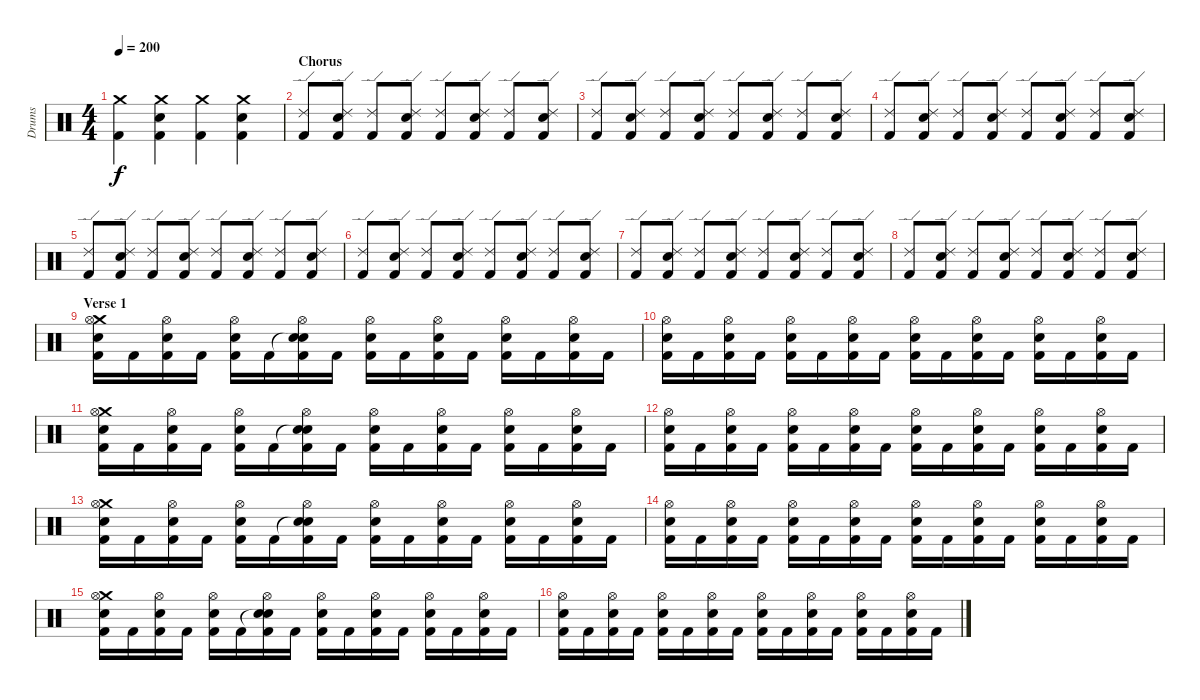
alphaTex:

\track ("Drums" "Drums") {instrument percussion}
\staff {score}
\articulation defaults
\ts (4 4)
\tempo 200
\clef neutral
\ks c
("Crash medium (hit)" "Kick (hit) 2").4{dy f} ("Crash medium (hit)" "Snare (hit) 2" "Kick (hit) 2").4 ("Crash medium (hit)" "Kick (hit) 2").4 ("Crash medium (hit)" "Snare (hit) 2" "Kick (hit) 2").4 |
\section ("" "Chorus")
("Ride (edge) 2" "Kick (hit) 2").8 ("Ride (edge) 2" "Snare (hit) 2" "Kick (hit) 2").8 ("Ride (edge) 2" "Kick (hit) 2").8 ("Ride (edge) 2" "Snare (hit) 2" "Kick (hit) 2").8 ("Ride (edge) 2" "Kick (hit) 2").8 ("Ride (edge) 2" "Snare (hit) 2" "Kick (hit) 2").8 ("Ride (edge) 2" "Kick (hit) 2").8 ("Ride (edge) 2" "Snare (hit) 2" "Kick (hit) 2").8 |
("Ride (edge) 2" "Kick (hit) 2").8 ("Ride (edge) 2" "Snare (hit) 2" "Kick (hit) 2").8 ("Ride (edge) 2" "Kick (hit) 2").8 ("Ride (edge) 2" "Snare (hit) 2" "Kick (hit) 2").8 ("Ride (edge) 2" "Kick (hit) 2").8 ("Ride (edge) 2" "Snare (hit) 2" "Kick (hit) 2").8 ("Ride (edge) 2" "Kick (hit) 2").8 ("Ride (edge) 2" "Snare (hit) 2" "Kick (hit) 2").8 |
("Ride (edge) 2" "Kick (hit) 2").8 ("Ride (edge) 2" "Snare (hit) 2" "Kick (hit) 2").8 ("Ride (edge) 2" "Kick (hit) 2").8 ("Ride (edge) 2" "Snare (hit) 2" "Kick (hit) 2").8 ("Ride (edge) 2" "Kick (hit) 2").8 ("Ride (edge) 2" "Snare (hit) 2" "Kick (hit) 2").8 ("Ride (edge) 2" "Kick (hit) 2").8 ("Ride (edge) 2" "Snare (hit) 2" "Kick (hit) 2").8 |
("Ride (edge) 2" "Kick (hit) 2").8 ("Ride (edge) 2" "Snare (hit) 2" "Kick (hit) 2").8 ("Ride (edge) 2" "Kick (hit) 2").8 ("Ride (edge) 2" "Snare (hit) 2" "Kick (hit) 2").8 ("Ride (edge) 2" "Kick (hit) 2").8 ("Ride (edge) 2" "Snare (hit) 2" "Kick (hit) 2").8 ("Ride (edge) 2" "Kick (hit) 2").8 ("Ride (edge) 2" "Snare (hit) 2" "Kick (hit) 2").8 |
("Ride (edge) 2" "Kick (hit) 2").8 ("Ride (edge) 2" "Snare (hit) 2" "Kick (hit) 2").8 ("Ride (edge) 2" "Kick (hit) 2").8 ("Ride (edge) 2" "Snare (hit) 2" "Kick (hit) 2").8 ("Ride (edge) 2" "Kick (hit) 2").8 ("Ride (edge) 2" "Snare (hit) 2" "Kick (hit) 2").8 ("Ride (edge) 2" "Kick (hit) 2").8 ("Ride (edge) 2" "Snare (hit) 2" "Kick (hit) 2").8 |
("Ride (edge) 2" "Kick (hit) 2").8 ("Ride (edge) 2" "Snare (hit) 2" "Kick (hit) 2").8 ("Ride (edge) 2" "Kick (hit) 2").8 ("Ride (edge) 2" "Snare (hit) 2" "Kick (hit) 2").8 ("Ride (edge) 2" "Kick (hit) 2").8 ("Ride (edge) 2" "Snare (hit) 2" "Kick (hit) 2").8 ("Ride (edge) 2" "Kick (hit) 2").8 ("Ride (edge) 2" "Snare (hit) 2" "Kick (hit) 2").8 |
("Ride (edge) 2" "Kick (hit) 2").8 ("Ride (edge) 2" "Snare (hit) 2" "Kick (hit) 2").8 ("Ride (edge) 2" "Kick (hit) 2").8 ("Ride (edge) 2" "Snare (hit) 2" "Kick (hit) 2").8 ("Ride (edge) 2" "Kick (hit) 2").8 ("Ride (edge) 2" "Snare (hit) 2" "Kick (hit) 2").8 ("Ride (edge) 2" "Kick (hit) 2").8 ("Ride (edge) 2" "Snare (hit) 2" "Kick (hit) 2").8 |
\section ("" "Verse 1")
("Crash medium (hit)" "Snare (hit) 2" "Hi-Hat (open)" "Kick (hit) 2").16 "Kick (hit) 2".16 ("Snare (hit) 2" "Hi-Hat (open)" "Kick (hit) 2").16 "Kick (hit) 2".16 ("Snare (hit) 2" "Hi-Hat (open)" "Kick (hit) 2").16 "Kick (hit) 2".16 ("Snare (hit)"{t} "Snare (hit) 2" "Hi-Hat (open)" "Kick (hit) 2").16 "Kick (hit) 2".16 ("Snare (hit) 2" "Hi-Hat (open)" "Kick (hit) 2").16 "Kick (hit) 2".16 ("Snare (hit) 2" "Hi-Hat (open)" "Kick (hit) 2").16 "Kick (hit) 2".16 ("Snare (hit) 2" "Hi-Hat (open)" "Kick (hit) 2").16 "Kick (hit) 2".16 ("Snare (hit) 2" "Hi-Hat (open)" "Kick (hit) 2").16 "Kick (hit) 2".16 |
("Snare (hit) 2" "Hi-Hat (open)" "Kick (hit) 2").16 "Kick (hit) 2".16 ("Snare (hit) 2" "Hi-Hat (open)" "Kick (hit) 2").16 "Kick (hit) 2".16 ("Snare (hit) 2" "Hi-Hat (open)" "Kick (hit) 2").16 "Kick (hit) 2".16 ("Snare (hit) 2" "Hi-Hat (open)" "Kick (hit) 2").16 "Kick (hit) 2".16 ("Snare (hit) 2" "Hi-Hat (open)" "Kick (hit) 2").16 "Kick (hit) 2".16 ("Snare (hit) 2" "Hi-Hat (open)" "Kick (hit) 2").16 "Kick (hit) 2".16 ("Snare (hit) 2" "Hi-Hat (open)" "Kick (hit) 2").16 "Kick (hit) 2".16 ("Snare (hit) 2" "Hi-Hat (open)" "Kick (hit) 2").16 "Kick (hit) 2".16 |
("Crash medium (hit)" "Snare (hit) 2" "Hi-Hat (open)" "Kick (hit) 2").16 "Kick (hit) 2".16 ("Snare (hit) 2" "Hi-Hat (open)" "Kick (hit) 2").16 "Kick (hit) 2".16 ("Snare (hit) 2" "Hi-Hat (open)" "Kick (hit) 2").16 "Kick (hit) 2".16 ("Snare (hit)"{t} "Snare (hit) 2" "Hi-Hat (open)" "Kick (hit) 2").16 "Kick (hit) 2".16 ("Snare (hit) 2" "Hi-Hat (open)" "Kick (hit) 2").16 "Kick (hit) 2".16 ("Snare (hit) 2" "Hi-Hat (open)" "Kick (hit) 2").16 "Kick (hit) 2".16 ("Snare (hit) 2" "Hi-Hat (open)" "Kick (hit) 2").16 "Kick (hit) 2".16 ("Snare (hit) 2" "Hi-Hat (open)" "Kick (hit) 2").16 "Kick (hit) 2".16 |
("Snare (hit) 2" "Hi-Hat (open)" "Kick (hit) 2").16 "Kick (hit) 2".16 ("Snare (hit) 2" "Hi-Hat (open)" "Kick (hit) 2").16 "Kick (hit) 2".16 ("Snare (hit) 2" "Hi-Hat (open)" "Kick (hit) 2").16 "Kick (hit) 2".16 ("Snare (hit) 2" "Hi-Hat (open)" "Kick (hit) 2").16 "Kick (hit) 2".16 ("Snare (hit) 2" "Hi-Hat (open)" "Kick (hit) 2").16 "Kick (hit) 2".16 ("Snare (hit) 2" "Hi-Hat (open)" "Kick (hit) 2").16 "Kick (hit) 2".16 ("Snare (hit) 2" "Hi-Hat (open)" "Kick (hit) 2").16 "Kick (hit) 2".16 ("Snare (hit) 2" "Hi-Hat (open)" "Kick (hit) 2").16 "Kick (hit) 2".16 |
("Crash medium (hit)" "Snare (hit) 2" "Hi-Hat (open)" "Kick (hit) 2").16 "Kick (hit) 2".16 ("Snare (hit) 2" "Hi-Hat (open)" "Kick (hit) 2").16 "Kick (hit) 2".16 ("Snare (hit) 2" "Hi-Hat (open)" "Kick (hit) 2").16 "Kick (hit) 2".16 ("Snare (hit)"{t} "Snare (hit) 2" "Hi-Hat (open)" "Kick (hit) 2").16 "Kick (hit) 2".16 ("Snare (hit) 2" "Hi-Hat (open)" "Kick (hit) 2").16 "Kick (hit) 2".16 ("Snare (hit) 2" "Hi-Hat (open)" "Kick (hit) 2").16 "Kick (hit) 2".16 ("Snare (hit) 2" "Hi-Hat (open)" "Kick (hit) 2").16 "Kick (hit) 2".16 ("Snare (hit) 2" "Hi-Hat (open)" "Kick (hit) 2").16 "Kick (hit) 2".16 |
("Snare (hit) 2" "Hi-Hat (open)" "Kick (hit) 2").16 "Kick (hit) 2".16 ("Snare (hit) 2" "Hi-Hat (open)" "Kick (hit) 2").16 "Kick (hit) 2".16 ("Snare (hit) 2" "Hi-Hat (open)" "Kick (hit) 2").16 "Kick (hit) 2".16 ("Snare (hit) 2" "Hi-Hat (open)" "Kick (hit) 2").16 "Kick (hit) 2".16 ("Snare (hit) 2" "Hi-Hat (open)" "Kick (hit) 2").16 "Kick (hit) 2".16 ("Snare (hit) 2" "Hi-Hat (open)" "Kick (hit) 2").16 "Kick (hit) 2".16 ("Snare (hit) 2" "Hi-Hat (open)" "Kick (hit) 2").16 "Kick (hit) 2".16 ("Snare (hit) 2" "Hi-Hat (open)" "Kick (hit) 2").16 "Kick (hit) 2".16 |
("Crash medium (hit)" "Snare (hit) 2" "Hi-Hat (open)" "Kick (hit) 2").16 "Kick (hit) 2".16 ("Snare (hit) 2" "Hi-Hat (open)" "Kick (hit) 2").16 "Kick (hit) 2".16 ("Snare (hit) 2" "Hi-Hat (open)" "Kick (hit) 2").16 "Kick (hit) 2".16 ("Snare (hit)"{t} "Snare (hit) 2" "Hi-Hat (open)" "Kick (hit) 2").16 "Kick (hit) 2".16 ("Snare (hit) 2" "Hi-Hat (open)" "Kick (hit) 2").16 "Kick (hit) 2".16 ("Snare (hit) 2" "Hi-Hat (open)" "Kick (hit) 2").16 "Kick (hit) 2".16 ("Snare (hit) 2" "Hi-Hat (open)" "Kick (hit) 2").16 "Kick (hit) 2".16 ("Snare (hit) 2" "Hi-Hat (open)" "Kick (hit) 2").16 "Kick (hit) 2".16 |
("Snare (hit) 2" "Hi-Hat (open)" "Kick (hit) 2").16 "Kick (hit) 2".16 ("Snare (hit) 2" "Hi-Hat (open)" "Kick (hit) 2").16 "Kick (hit) 2".16 ("Snare (hit) 2" "Hi-Hat (open)" "Kick (hit) 2").16 "Kick (hit) 2".16 ("Snare (hit) 2" "Hi-Hat (open)" "Kick (hit) 2").16 "Kick (hit) 2".16 ("Snare (hit) 2" "Hi-Hat (open)" "Kick (hit) 2").16 "Kick (hit) 2".16 ("Snare (hit) 2" "Hi-Hat (open)" "Kick (hit) 2").16 "Kick (hit) 2".16 ("Snare (hit) 2" "Hi-Hat (open)" "Kick (hit) 2").16 "Kick (hit) 2".16 ("Snare (hit) 2" "Hi-Hat (open)" "Kick (hit) 2").16 "Kick (hit) 2".16
